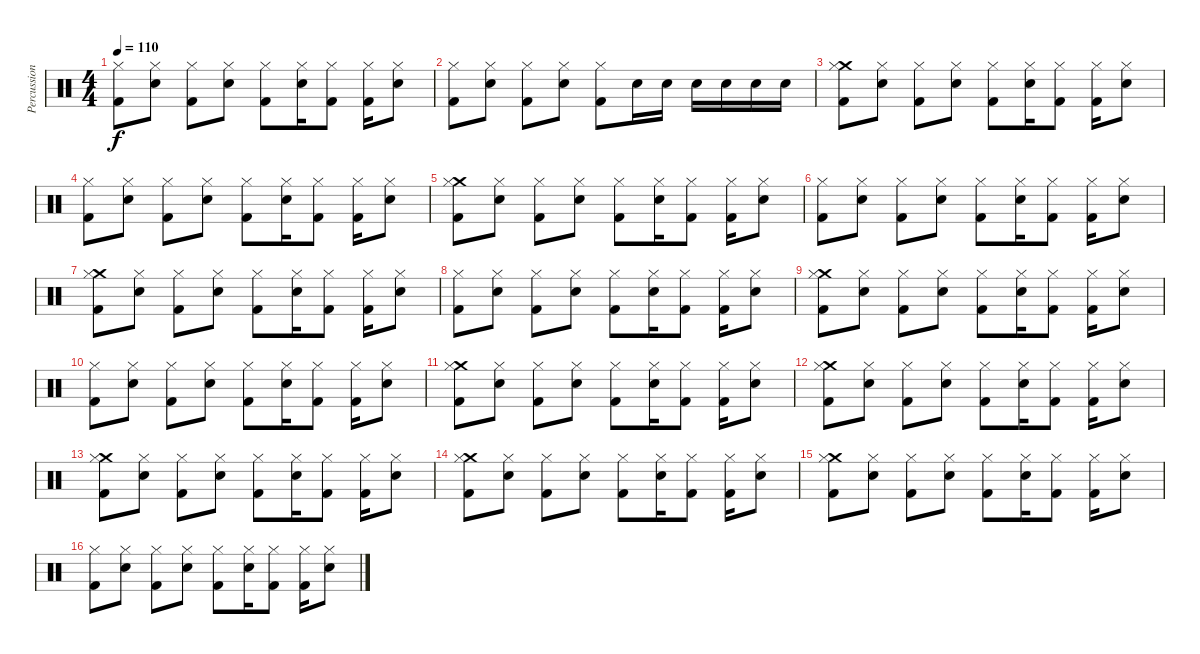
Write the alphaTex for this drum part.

\track ("Percussion" "Percussion") {instrument percussion}
\staff {score}
\articulation defaults
\ts (4 4)
\tempo 110
\clef neutral
\ks c
("Hi-Hat (closed)" "Kick (hit) 2").8{dy f} ("Hi-Hat (closed)" "Electric Snare (hit)").8 ("Hi-Hat (closed)" "Kick (hit) 2").8 ("Hi-Hat (closed)" "Electric Snare (hit)").8 ("Hi-Hat (closed)" "Kick (hit) 2").8 ("Hi-Hat (closed)" "Electric Snare (hit)").16 ("Hi-Hat (closed)" "Kick (hit) 2").8 ("Hi-Hat (closed)" "Kick (hit) 2").16 ("Hi-Hat (closed)" "Electric Snare (hit)").8 |
("Hi-Hat (closed)" "Kick (hit) 2").8 ("Hi-Hat (closed)" "Electric Snare (hit)").8 ("Hi-Hat (closed)" "Kick (hit) 2").8 ("Hi-Hat (closed)" "Electric Snare (hit)").8 ("Hi-Hat (closed)" "Kick (hit) 2").8 "Electric Snare (hit)".16 "Electric Snare (hit)".16 "Electric Snare (hit)".16 "Electric Snare (hit)".16 "Electric Snare (hit)".16 "Electric Snare (hit)".16 |
("Crash medium (hit)" "Hi-Hat (closed)" "Kick (hit) 2").8 ("Hi-Hat (closed)" "Electric Snare (hit)").8 ("Hi-Hat (closed)" "Kick (hit) 2").8 ("Hi-Hat (closed)" "Electric Snare (hit)").8 ("Hi-Hat (closed)" "Kick (hit) 2").8 ("Hi-Hat (closed)" "Electric Snare (hit)").16 ("Hi-Hat (closed)" "Kick (hit) 2").8 ("Hi-Hat (closed)" "Kick (hit) 2").16 ("Hi-Hat (closed)" "Electric Snare (hit)").8 |
("Hi-Hat (closed)" "Kick (hit) 2").8 ("Hi-Hat (closed)" "Electric Snare (hit)").8 ("Hi-Hat (closed)" "Kick (hit) 2").8 ("Hi-Hat (closed)" "Electric Snare (hit)").8 ("Hi-Hat (closed)" "Kick (hit) 2").8 ("Hi-Hat (closed)" "Electric Snare (hit)").16 ("Hi-Hat (closed)" "Kick (hit) 2").8 ("Hi-Hat (closed)" "Kick (hit) 2").16 ("Hi-Hat (closed)" "Electric Snare (hit)").8 |
("Crash medium (hit)" "Hi-Hat (closed)" "Kick (hit) 2").8 ("Hi-Hat (closed)" "Electric Snare (hit)").8 ("Hi-Hat (closed)" "Kick (hit) 2").8 ("Hi-Hat (closed)" "Electric Snare (hit)").8 ("Hi-Hat (closed)" "Kick (hit) 2").8 ("Hi-Hat (closed)" "Electric Snare (hit)").16 ("Hi-Hat (closed)" "Kick (hit) 2").8 ("Hi-Hat (closed)" "Kick (hit) 2").16 ("Hi-Hat (closed)" "Electric Snare (hit)").8 |
("Hi-Hat (closed)" "Kick (hit) 2").8 ("Hi-Hat (closed)" "Electric Snare (hit)").8 ("Hi-Hat (closed)" "Kick (hit) 2").8 ("Hi-Hat (closed)" "Electric Snare (hit)").8 ("Hi-Hat (closed)" "Kick (hit) 2").8 ("Hi-Hat (closed)" "Electric Snare (hit)").16 ("Hi-Hat (closed)" "Kick (hit) 2").8 ("Hi-Hat (closed)" "Kick (hit) 2").16 ("Hi-Hat (closed)" "Electric Snare (hit)").8 |
("Crash medium (hit)" "Hi-Hat (closed)" "Kick (hit) 2").8 ("Hi-Hat (closed)" "Electric Snare (hit)").8 ("Hi-Hat (closed)" "Kick (hit) 2").8 ("Hi-Hat (closed)" "Electric Snare (hit)").8 ("Hi-Hat (closed)" "Kick (hit) 2").8 ("Hi-Hat (closed)" "Electric Snare (hit)").16 ("Hi-Hat (closed)" "Kick (hit) 2").8 ("Hi-Hat (closed)" "Kick (hit) 2").16 ("Hi-Hat (closed)" "Electric Snare (hit)").8 |
("Hi-Hat (closed)" "Kick (hit) 2").8 ("Hi-Hat (closed)" "Electric Snare (hit)").8 ("Hi-Hat (closed)" "Kick (hit) 2").8 ("Hi-Hat (closed)" "Electric Snare (hit)").8 ("Hi-Hat (closed)" "Kick (hit) 2").8 ("Hi-Hat (closed)" "Electric Snare (hit)").16 ("Hi-Hat (closed)" "Kick (hit) 2").8 ("Hi-Hat (closed)" "Kick (hit) 2").16 ("Hi-Hat (closed)" "Electric Snare (hit)").8 |
("Crash medium (hit)" "Hi-Hat (closed)" "Kick (hit) 2").8 ("Hi-Hat (closed)" "Electric Snare (hit)").8 ("Hi-Hat (closed)" "Kick (hit) 2").8 ("Hi-Hat (closed)" "Electric Snare (hit)").8 ("Hi-Hat (closed)" "Kick (hit) 2").8 ("Hi-Hat (closed)" "Electric Snare (hit)").16 ("Hi-Hat (closed)" "Kick (hit) 2").8 ("Hi-Hat (closed)" "Kick (hit) 2").16 ("Hi-Hat (closed)" "Electric Snare (hit)").8 |
("Hi-Hat (closed)" "Kick (hit) 2").8 ("Hi-Hat (closed)" "Electric Snare (hit)").8 ("Hi-Hat (closed)" "Kick (hit) 2").8 ("Hi-Hat (closed)" "Electric Snare (hit)").8 ("Hi-Hat (closed)" "Kick (hit) 2").8 ("Hi-Hat (closed)" "Electric Snare (hit)").16 ("Hi-Hat (closed)" "Kick (hit) 2").8 ("Hi-Hat (closed)" "Kick (hit) 2").16 ("Hi-Hat (closed)" "Electric Snare (hit)").8 |
("Crash medium (hit)" "Hi-Hat (closed)" "Kick (hit) 2").8 ("Hi-Hat (closed)" "Electric Snare (hit)").8 ("Hi-Hat (closed)" "Kick (hit) 2").8 ("Hi-Hat (closed)" "Electric Snare (hit)").8 ("Hi-Hat (closed)" "Kick (hit) 2").8 ("Hi-Hat (closed)" "Electric Snare (hit)").16 ("Hi-Hat (closed)" "Kick (hit) 2").8 ("Hi-Hat (closed)" "Kick (hit) 2").16 ("Hi-Hat (closed)" "Electric Snare (hit)").8 |
("Crash medium (hit)" "Hi-Hat (closed)" "Kick (hit) 2").8 ("Hi-Hat (closed)" "Electric Snare (hit)").8 ("Hi-Hat (closed)" "Kick (hit) 2").8 ("Hi-Hat (closed)" "Electric Snare (hit)").8 ("Hi-Hat (closed)" "Kick (hit) 2").8 ("Hi-Hat (closed)" "Electric Snare (hit)").16 ("Hi-Hat (closed)" "Kick (hit) 2").8 ("Hi-Hat (closed)" "Kick (hit) 2").16 ("Hi-Hat (closed)" "Electric Snare (hit)").8 |
("Crash medium (hit)" "Hi-Hat (closed)" "Kick (hit) 2").8 ("Hi-Hat (closed)" "Electric Snare (hit)").8 ("Hi-Hat (closed)" "Kick (hit) 2").8 ("Hi-Hat (closed)" "Electric Snare (hit)").8 ("Hi-Hat (closed)" "Kick (hit) 2").8 ("Hi-Hat (closed)" "Electric Snare (hit)").16 ("Hi-Hat (closed)" "Kick (hit) 2").8 ("Hi-Hat (closed)" "Kick (hit) 2").16 ("Hi-Hat (closed)" "Electric Snare (hit)").8 |
("Crash medium (hit)" "Hi-Hat (closed)" "Kick (hit) 2").8 ("Hi-Hat (closed)" "Electric Snare (hit)").8 ("Hi-Hat (closed)" "Kick (hit) 2").8 ("Hi-Hat (closed)" "Electric Snare (hit)").8 ("Hi-Hat (closed)" "Kick (hit) 2").8 ("Hi-Hat (closed)" "Electric Snare (hit)").16 ("Hi-Hat (closed)" "Kick (hit) 2").8 ("Hi-Hat (closed)" "Kick (hit) 2").16 ("Hi-Hat (closed)" "Electric Snare (hit)").8 |
("Crash medium (hit)" "Hi-Hat (closed)" "Kick (hit) 2").8 ("Hi-Hat (closed)" "Electric Snare (hit)").8 ("Hi-Hat (closed)" "Kick (hit) 2").8 ("Hi-Hat (closed)" "Electric Snare (hit)").8 ("Hi-Hat (closed)" "Kick (hit) 2").8 ("Hi-Hat (closed)" "Electric Snare (hit)").16 ("Hi-Hat (closed)" "Kick (hit) 2").8 ("Hi-Hat (closed)" "Kick (hit) 2").16 ("Hi-Hat (closed)" "Electric Snare (hit)").8 |
("Hi-Hat (closed)" "Kick (hit) 2").8 ("Hi-Hat (closed)" "Electric Snare (hit)").8 ("Hi-Hat (closed)" "Kick (hit) 2").8 ("Hi-Hat (closed)" "Electric Snare (hit)").8 ("Hi-Hat (closed)" "Kick (hit) 2").8 ("Hi-Hat (closed)" "Electric Snare (hit)").16 ("Hi-Hat (closed)" "Kick (hit) 2").8 ("Hi-Hat (closed)" "Kick (hit) 2").16 ("Hi-Hat (closed)" "Electric Snare (hit)").8
